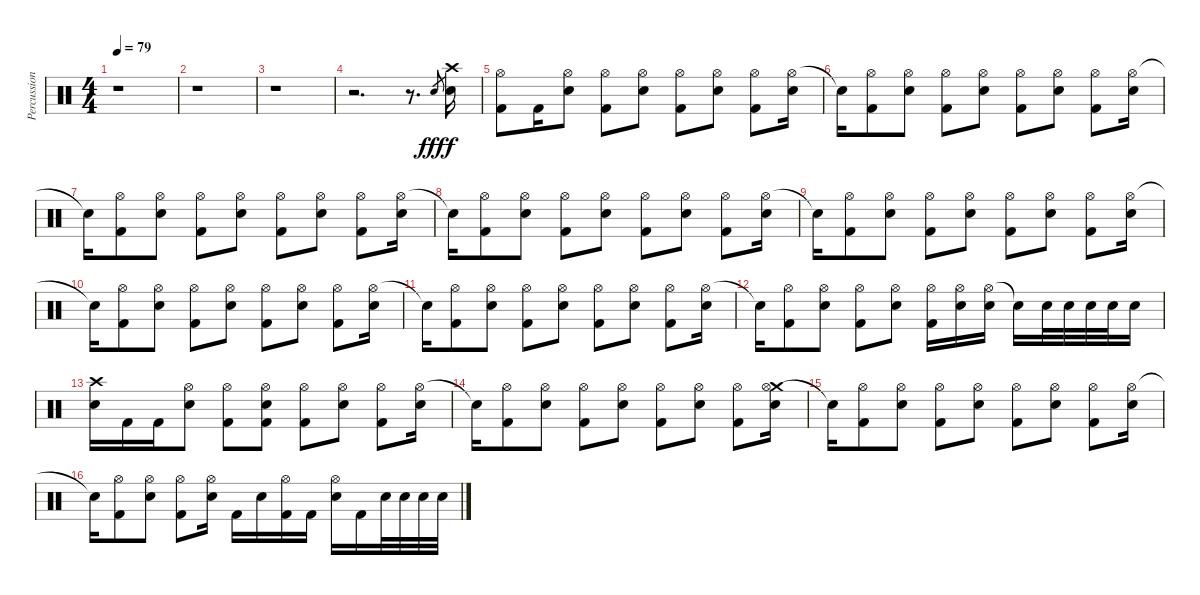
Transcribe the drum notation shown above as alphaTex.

\track ("Percussion" "Percussion") {instrument percussion}
\staff {score}
\articulation defaults
\ts (4 4)
\tempo 79
\clef neutral
\ks c
r.1{dy fff} |
r.1 |
r.1 |
r.2{d} r.8{d} "Electric Snare (hit)".8{gr} ("Crash high (hit)" "Electric Snare (hit)").16{dy f} |
("Hi-Hat (open)" "Kick (hit) 2").8 "Kick (hit) 2".16 ("Hi-Hat (open)" "Electric Snare (hit)").8 ("Hi-Hat (open)" "Kick (hit) 2").8 ("Hi-Hat (open)" "Electric Snare (hit)").8 ("Hi-Hat (open)" "Kick (hit) 2").8 ("Hi-Hat (open)" "Electric Snare (hit)").8 ("Hi-Hat (open)" "Kick (hit) 2").8 ("Hi-Hat (open)" "Electric Snare (hit)").16 |
"Snare (hit)"{t}.16 ("Hi-Hat (open)" "Kick (hit) 2").8 ("Hi-Hat (open)" "Electric Snare (hit)").8 ("Hi-Hat (open)" "Kick (hit) 2").8 ("Hi-Hat (open)" "Electric Snare (hit)").8 ("Hi-Hat (open)" "Kick (hit) 2").8 ("Hi-Hat (open)" "Electric Snare (hit)").8 ("Hi-Hat (open)" "Kick (hit) 2").8 ("Hi-Hat (open)" "Electric Snare (hit)").16 |
"Snare (hit)"{t}.16 ("Hi-Hat (open)" "Kick (hit) 2").8 ("Hi-Hat (open)" "Electric Snare (hit)").8 ("Hi-Hat (open)" "Kick (hit) 2").8 ("Hi-Hat (open)" "Electric Snare (hit)").8 ("Hi-Hat (open)" "Kick (hit) 2").8 ("Hi-Hat (open)" "Electric Snare (hit)").8 ("Hi-Hat (open)" "Kick (hit) 2").8 ("Hi-Hat (open)" "Electric Snare (hit)").16 |
"Snare (hit)"{t}.16 ("Hi-Hat (open)" "Kick (hit) 2").8 ("Hi-Hat (open)" "Electric Snare (hit)").8 ("Hi-Hat (open)" "Kick (hit) 2").8 ("Hi-Hat (open)" "Electric Snare (hit)").8 ("Hi-Hat (open)" "Kick (hit) 2").8 ("Hi-Hat (open)" "Electric Snare (hit)").8 ("Hi-Hat (open)" "Kick (hit) 2").8 ("Hi-Hat (open)" "Electric Snare (hit)").16 |
"Snare (hit)"{t}.16 ("Hi-Hat (open)" "Kick (hit) 2").8 ("Hi-Hat (open)" "Electric Snare (hit)").8 ("Hi-Hat (open)" "Kick (hit) 2").8 ("Hi-Hat (open)" "Electric Snare (hit)").8 ("Hi-Hat (open)" "Kick (hit) 2").8 ("Hi-Hat (open)" "Electric Snare (hit)").8 ("Hi-Hat (open)" "Kick (hit) 2").8 ("Hi-Hat (open)" "Electric Snare (hit)").16 |
"Snare (hit)"{t}.16 ("Hi-Hat (open)" "Kick (hit) 2").8 ("Hi-Hat (open)" "Electric Snare (hit)").8 ("Hi-Hat (open)" "Kick (hit) 2").8 ("Hi-Hat (open)" "Electric Snare (hit)").8 ("Hi-Hat (open)" "Kick (hit) 2").8 ("Hi-Hat (open)" "Electric Snare (hit)").8 ("Hi-Hat (open)" "Kick (hit) 2").8 ("Hi-Hat (open)" "Electric Snare (hit)").16 |
"Snare (hit)"{t}.16 ("Hi-Hat (open)" "Kick (hit) 2").8 ("Hi-Hat (open)" "Electric Snare (hit)").8 ("Hi-Hat (open)" "Kick (hit) 2").8 ("Hi-Hat (open)" "Electric Snare (hit)").8 ("Hi-Hat (open)" "Kick (hit) 2").8 ("Hi-Hat (open)" "Electric Snare (hit)").8 ("Hi-Hat (open)" "Kick (hit) 2").8 ("Hi-Hat (open)" "Electric Snare (hit)").16 |
"Snare (hit)"{t}.16 ("Hi-Hat (open)" "Kick (hit) 2").8 ("Hi-Hat (open)" "Electric Snare (hit)").8 ("Hi-Hat (open)" "Kick (hit) 2").8 ("Hi-Hat (open)" "Electric Snare (hit)").8 ("Hi-Hat (open)" "Kick (hit) 2").16 ("Hi-Hat (open)" "Electric Snare (hit)").16 ("Hi-Hat (open)" "Electric Snare (hit)").16 "Snare (hit)"{t}.16 "Electric Snare (hit)".32 "Electric Snare (hit)".32 "Electric Snare (hit)".32 "Electric Snare (hit)".32 "Electric Snare (hit)".16 |
("Crash high (hit)" "Electric Snare (hit)").16 "Kick (hit) 2".16 "Kick (hit) 2".16 ("Hi-Hat (open)" "Electric Snare (hit)").8 ("Hi-Hat (open)" "Kick (hit) 2").8 ("Hi-Hat (open)" "Electric Snare (hit)" "Kick (hit) 2").8 ("Hi-Hat (open)" "Kick (hit) 2").8 ("Hi-Hat (open)" "Electric Snare (hit)").8 ("Hi-Hat (open)" "Kick (hit) 2").8 ("Hi-Hat (open)" "Electric Snare (hit)").16 |
"Snare (hit)"{t}.16 ("Hi-Hat (open)" "Kick (hit) 2").8 ("Hi-Hat (open)" "Electric Snare (hit)").8 ("Hi-Hat (open)" "Kick (hit) 2").8 ("Hi-Hat (open)" "Electric Snare (hit)").8 ("Hi-Hat (open)" "Kick (hit) 2").8 ("Hi-Hat (open)" "Electric Snare (hit)").8 ("Hi-Hat (open)" "Kick (hit) 2").8 ("Crash medium (hit)" "Hi-Hat (open)" "Electric Snare (hit)").16 |
"Snare (hit)"{t}.16 ("Hi-Hat (open)" "Kick (hit) 2").8 ("Hi-Hat (open)" "Electric Snare (hit)").8 ("Hi-Hat (open)" "Kick (hit) 2").8 ("Hi-Hat (open)" "Electric Snare (hit)").8 ("Hi-Hat (open)" "Kick (hit) 2").8 ("Hi-Hat (open)" "Electric Snare (hit)").8 ("Hi-Hat (open)" "Kick (hit) 2").8 ("Hi-Hat (open)" "Electric Snare (hit)").16 |
"Electric Snare (hit)"{t}.16 ("Hi-Hat (open)" "Kick (hit) 2").8 ("Hi-Hat (open)" "Electric Snare (hit)").8 ("Hi-Hat (open)" "Kick (hit) 2").8 ("Hi-Hat (open)" "Electric Snare (hit)").16 "Kick (hit) 2".16 "Electric Snare (hit)".16 ("Hi-Hat (open)" "Kick (hit) 2").16 "Kick (hit) 2".16 ("Hi-Hat (open)" "Electric Snare (hit)").16 "Kick (hit) 2".16 "Electric Snare (hit)".32 "Electric Snare (hit)".32 "Electric Snare (hit)".32 "Electric Snare (hit)".32
